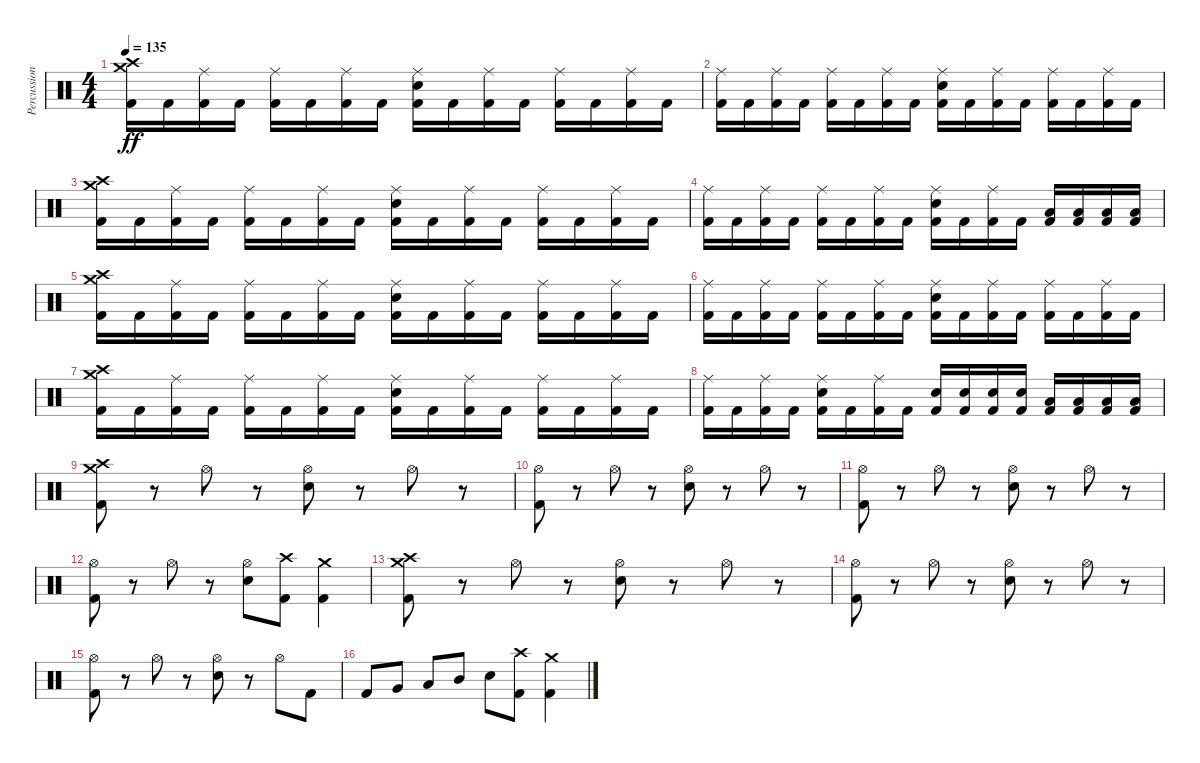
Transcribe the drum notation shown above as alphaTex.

\track ("Percussion" "Percussion") {instrument percussion}
\staff {score}
\articulation defaults
\ts (4 4)
\tempo 135
\clef neutral
\ks c
("Kick (hit) 2" "Crash medium (hit)" "Crash high (hit)").16{dy ff} "Kick (hit) 2".16 ("Kick (hit) 2" "Ride (middle)").16 "Kick (hit) 2".16 ("Kick (hit) 2" "Ride (middle)").16 "Kick (hit) 2".16 ("Kick (hit) 2" "Ride (middle)").16 "Kick (hit) 2".16 ("Kick (hit) 2" "Electric Snare (hit)" "Ride (middle)").16 "Kick (hit) 2".16 ("Kick (hit) 2" "Ride (middle)").16 "Kick (hit) 2".16 ("Kick (hit) 2" "Ride (middle)").16 "Kick (hit) 2".16 ("Kick (hit) 2" "Ride (middle)").16 "Kick (hit) 2".16 |
("Kick (hit) 2" "Ride (middle)").16 "Kick (hit) 2".16 ("Kick (hit) 2" "Ride (middle)").16 "Kick (hit) 2".16 ("Kick (hit) 2" "Ride (middle)").16 "Kick (hit) 2".16 ("Kick (hit) 2" "Ride (middle)").16 "Kick (hit) 2".16 ("Kick (hit) 2" "Electric Snare (hit)" "Ride (middle)").16 "Kick (hit) 2".16 ("Kick (hit) 2" "Ride (middle)").16 "Kick (hit) 2".16 ("Kick (hit) 2" "Ride (middle)").16 "Kick (hit) 2".16 ("Kick (hit) 2" "Ride (middle)").16 "Kick (hit) 2".16 |
("Kick (hit) 2" "Crash medium (hit)" "Crash high (hit)").16 "Kick (hit) 2".16 ("Kick (hit) 2" "Ride (middle)").16 "Kick (hit) 2".16 ("Kick (hit) 2" "Ride (middle)").16 "Kick (hit) 2".16 ("Kick (hit) 2" "Ride (middle)").16 "Kick (hit) 2".16 ("Kick (hit) 2" "Electric Snare (hit)" "Ride (middle)").16 "Kick (hit) 2".16 ("Kick (hit) 2" "Ride (middle)").16 "Kick (hit) 2".16 ("Kick (hit) 2" "Ride (middle)").16 "Kick (hit) 2".16 ("Kick (hit) 2" "Ride (middle)").16 "Kick (hit) 2".16 |
("Kick (hit) 2" "Ride (middle)").16 "Kick (hit) 2".16 ("Kick (hit) 2" "Ride (middle)").16 "Kick (hit) 2".16 ("Kick (hit) 2" "Ride (middle)").16 "Kick (hit) 2".16 ("Kick (hit) 2" "Ride (middle)").16 "Kick (hit) 2".16 ("Kick (hit) 2" "Electric Snare (hit)" "Ride (middle)").16 "Kick (hit) 2".16 ("Kick (hit) 2" "Ride (middle)").16 "Kick (hit) 2".16 ("Kick (hit) 2" "Low Tom (hit)").16 ("Kick (hit) 2" "Low Tom (hit)").16 ("Kick (hit) 2" "Low Tom (hit)").16 ("Kick (hit) 2" "Low Tom (hit)").16 |
("Kick (hit) 2" "Crash medium (hit)" "Crash high (hit)").16 "Kick (hit) 2".16 ("Kick (hit) 2" "Ride (middle)").16 "Kick (hit) 2".16 ("Kick (hit) 2" "Ride (middle)").16 "Kick (hit) 2".16 ("Kick (hit) 2" "Ride (middle)").16 "Kick (hit) 2".16 ("Kick (hit) 2" "Electric Snare (hit)" "Ride (middle)").16 "Kick (hit) 2".16 ("Kick (hit) 2" "Ride (middle)").16 "Kick (hit) 2".16 ("Kick (hit) 2" "Ride (middle)").16 "Kick (hit) 2".16 ("Kick (hit) 2" "Ride (middle)").16 "Kick (hit) 2".16 |
("Kick (hit) 2" "Ride (middle)").16 "Kick (hit) 2".16 ("Kick (hit) 2" "Ride (middle)").16 "Kick (hit) 2".16 ("Kick (hit) 2" "Ride (middle)").16 "Kick (hit) 2".16 ("Kick (hit) 2" "Ride (middle)").16 "Kick (hit) 2".16 ("Kick (hit) 2" "Electric Snare (hit)" "Ride (middle)").16 "Kick (hit) 2".16 ("Kick (hit) 2" "Ride (middle)").16 "Kick (hit) 2".16 ("Kick (hit) 2" "Ride (middle)").16 "Kick (hit) 2".16 ("Kick (hit) 2" "Ride (middle)").16 "Kick (hit) 2".16 |
("Kick (hit) 2" "Crash medium (hit)" "Crash high (hit)").16 "Kick (hit) 2".16 ("Kick (hit) 2" "Ride (middle)").16 "Kick (hit) 2".16 ("Kick (hit) 2" "Ride (middle)").16 "Kick (hit) 2".16 ("Kick (hit) 2" "Ride (middle)").16 "Kick (hit) 2".16 ("Kick (hit) 2" "Electric Snare (hit)" "Ride (middle)").16 "Kick (hit) 2".16 ("Kick (hit) 2" "Ride (middle)").16 "Kick (hit) 2".16 ("Kick (hit) 2" "Ride (middle)").16 "Kick (hit) 2".16 ("Kick (hit) 2" "Ride (middle)").16 "Kick (hit) 2".16 |
("Kick (hit) 2" "Ride (middle)").16 "Kick (hit) 2".16 ("Kick (hit) 2" "Ride (middle)").16 "Kick (hit) 2".16 ("Kick (hit) 2" "Electric Snare (hit)" "Ride (middle)").16 "Kick (hit) 2".16 ("Kick (hit) 2" "Ride (middle)").16 "Kick (hit) 2".16 ("Kick (hit) 2" "Electric Snare (hit)").16 ("Kick (hit) 2" "Electric Snare (hit)").16 ("Kick (hit) 2" "Electric Snare (hit)").16 ("Kick (hit) 2" "Electric Snare (hit)").16 ("Kick (hit) 2" "Low Tom (hit)").16 ("Kick (hit) 2" "Low Tom (hit)").16 ("Kick (hit) 2" "Low Tom (hit)").16 ("Kick (hit) 2" "Low Tom (hit)").16 |
("Kick (hit) 2" "Crash medium (hit)" "Crash high (hit)").8 r.8 "Hi-Hat (open)".8 r.8 ("Electric Snare (hit)" "Hi-Hat (open)").8 r.8 "Hi-Hat (open)".8 r.8 |
("Kick (hit) 2" "Hi-Hat (open)").8 r.8 "Hi-Hat (open)".8 r.8 ("Electric Snare (hit)" "Hi-Hat (open)").8 r.8 "Hi-Hat (open)".8 r.8 |
("Kick (hit) 2" "Hi-Hat (open)").8 r.8 "Hi-Hat (open)".8 r.8 ("Electric Snare (hit)" "Hi-Hat (open)").8 r.8 "Hi-Hat (open)".8 r.8 |
("Kick (hit) 2" "Hi-Hat (open)").8 r.8 "Hi-Hat (open)".8 r.8 ("Electric Snare (hit)" "Hi-Hat (open)").8 ("Kick (hit) 2" "Crash high (hit)").8 ("Kick (hit) 2" "Crash medium (hit)").4 |
("Kick (hit) 2" "Crash medium (hit)" "Crash high (hit)").8 r.8 "Hi-Hat (open)".8 r.8 ("Electric Snare (hit)" "Hi-Hat (open)").8 r.8 "Hi-Hat (open)".8 r.8 |
("Kick (hit) 2" "Hi-Hat (open)").8 r.8 "Hi-Hat (open)".8 r.8 ("Electric Snare (hit)" "Hi-Hat (open)").8 r.8 "Hi-Hat (open)".8 r.8 |
("Kick (hit) 2" "Hi-Hat (open)").8 r.8 "Hi-Hat (open)".8 r.8 ("Electric Snare (hit)" "Hi-Hat (open)").8 r.8 "Hi-Hat (open)".8 "Kick (hit) 2".8 |
"Kick (hit) 2".8 "Very Low Tom (hit)".8 "Low Tom (hit)".8 "Mid Tom (hit)".8 "Electric Snare (hit)".8 ("Kick (hit) 2" "Crash high (hit)").8 ("Kick (hit) 2" "Crash medium (hit)").4
